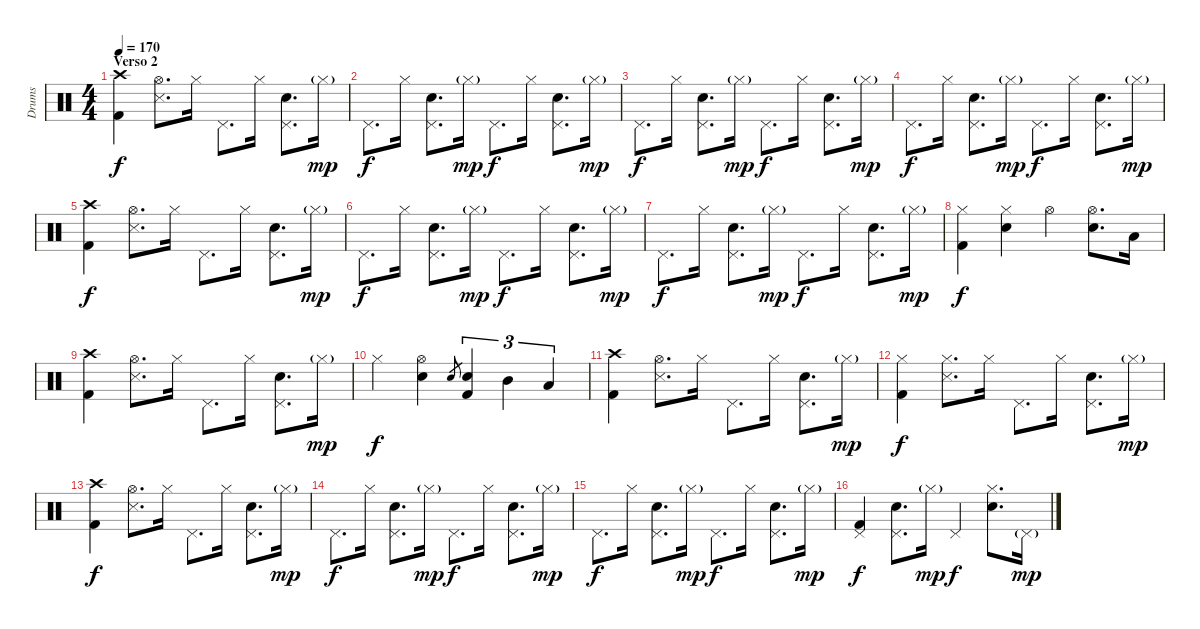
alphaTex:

\track ("Drums" "Drums") {instrument percussion}
\staff {score}
\articulation defaults
\ts (4 4)
\section ("" "Verso 2")
\tempo 170
\clef neutral
\ks c
("Crash high (hit)" "Kick (hit) 2").4{dy f} ("Hi-Hat (open)" "Snare (side stick) 3").8{d} "Hi-Hat (closed)".16 "Pedal Hi-Hat (hit)".8{d} "Hi-Hat (closed)".16 ("Pedal Hi-Hat (hit)" "Snare (hit) 2").8{d} "Hi-Hat (closed)"{g}.16{dy mp} |
"Pedal Hi-Hat (hit)".8{d dy f} "Hi-Hat (closed)".16 ("Pedal Hi-Hat (hit)" "Snare (hit) 2").8{d} "Hi-Hat (closed)"{g}.16{dy mp} "Pedal Hi-Hat (hit)".8{d dy f} "Hi-Hat (closed)".16 ("Pedal Hi-Hat (hit)" "Snare (hit) 2").8{d} "Hi-Hat (closed)"{g}.16{dy mp} |
"Pedal Hi-Hat (hit)".8{d dy f} "Hi-Hat (closed)".16 ("Pedal Hi-Hat (hit)" "Snare (hit) 2").8{d} "Hi-Hat (closed)"{g}.16{dy mp} "Pedal Hi-Hat (hit)".8{d dy f} "Hi-Hat (closed)".16 ("Pedal Hi-Hat (hit)" "Snare (hit) 2").8{d} "Hi-Hat (closed)"{g}.16{dy mp} |
"Pedal Hi-Hat (hit)".8{d dy f} "Hi-Hat (closed)".16 ("Pedal Hi-Hat (hit)" "Snare (hit) 2").8{d} "Hi-Hat (closed)"{g}.16{dy mp} "Pedal Hi-Hat (hit)".8{d dy f} "Hi-Hat (closed)".16 ("Pedal Hi-Hat (hit)" "Snare (hit) 2").8{d} "Hi-Hat (closed)"{g}.16{dy mp} |
("Crash high (hit)" "Kick (hit) 2").4{dy f} ("Hi-Hat (open)" "Snare (side stick) 3").8{d} "Hi-Hat (closed)".16 "Pedal Hi-Hat (hit)".8{d} "Hi-Hat (closed)".16 ("Pedal Hi-Hat (hit)" "Snare (hit) 2").8{d} "Hi-Hat (closed)"{g}.16{dy mp} |
"Pedal Hi-Hat (hit)".8{d dy f} "Hi-Hat (closed)".16 ("Pedal Hi-Hat (hit)" "Snare (hit) 2").8{d} "Hi-Hat (closed)"{g}.16{dy mp} "Pedal Hi-Hat (hit)".8{d dy f} "Hi-Hat (closed)".16 ("Pedal Hi-Hat (hit)" "Snare (hit) 2").8{d} "Hi-Hat (closed)"{g}.16{dy mp} |
"Pedal Hi-Hat (hit)".8{d dy f} "Hi-Hat (closed)".16 ("Pedal Hi-Hat (hit)" "Snare (hit) 2").8{d} "Hi-Hat (closed)"{g}.16{dy mp} "Pedal Hi-Hat (hit)".8{d dy f} "Hi-Hat (closed)".16 ("Pedal Hi-Hat (hit)" "Snare (hit) 2").8{d} "Hi-Hat (closed)"{g}.16{dy mp} |
("Hi-Hat (closed)" "Kick (hit) 2").4{dy f} ("Hi-Hat (closed)" "Snare (hit) 2").4 "Hi-Hat (open)".4 ("Hi-Hat (open)" "Snare (hit) 2").8{d} "Low Tom (hit)".16 |
("Crash high (hit)" "Kick (hit) 2").4 ("Hi-Hat (open)" "Snare (side stick) 3").8{d} "Hi-Hat (closed)".16 "Pedal Hi-Hat (hit)".8{d} "Hi-Hat (closed)".16 ("Pedal Hi-Hat (hit)" "Snare (hit) 2").8{d} "Hi-Hat (closed)"{g}.16{dy mp} |
"Hi-Hat (closed)".4{dy f} ("Hi-Hat (open)" "Snare (hit) 2").4 "Snare (hit) 2".8{gr} ("Snare (hit) 2" "Kick (hit) 2").4{tu (3 2)} "Mid Tom (hit)".4{tu (3 2)} "Low Tom (hit)".4{tu (3 2)} |
("Crash high (hit)" "Kick (hit) 2").4 ("Hi-Hat (open)" "Snare (side stick) 3").8{d} "Hi-Hat (closed)".16 "Pedal Hi-Hat (hit)".8{d} "Hi-Hat (closed)".16 ("Pedal Hi-Hat (hit)" "Snare (hit) 2").8{d} "Hi-Hat (closed)"{g}.16{dy mp} |
("Hi-Hat (closed)" "Kick (hit) 2").4{dy f} ("Hi-Hat (closed)" "Snare (side stick) 3").8{d} "Hi-Hat (closed)".16 "Pedal Hi-Hat (hit)".8{d} "Hi-Hat (closed)".16 ("Pedal Hi-Hat (hit)" "Snare (hit) 2").8{d} "Hi-Hat (closed)"{g}.16{dy mp} |
("Crash high (hit)" "Kick (hit) 2").4{dy f} ("Hi-Hat (open)" "Snare (side stick) 3").8{d} "Hi-Hat (closed)".16 "Pedal Hi-Hat (hit)".8{d} "Hi-Hat (closed)".16 ("Pedal Hi-Hat (hit)" "Snare (hit) 2").8{d} "Hi-Hat (closed)"{g}.16{dy mp} |
"Pedal Hi-Hat (hit)".8{d dy f} "Hi-Hat (closed)".16 ("Pedal Hi-Hat (hit)" "Snare (hit) 2").8{d} "Hi-Hat (closed)"{g}.16{dy mp} "Pedal Hi-Hat (hit)".8{d dy f} "Hi-Hat (closed)".16 ("Pedal Hi-Hat (hit)" "Snare (hit) 2").8{d} "Hi-Hat (closed)"{g}.16{dy mp} |
"Pedal Hi-Hat (hit)".8{d dy f} "Hi-Hat (closed)".16 ("Pedal Hi-Hat (hit)" "Snare (hit) 2").8{d} "Hi-Hat (closed)"{g}.16{dy mp} "Pedal Hi-Hat (hit)".8{d dy f} "Hi-Hat (closed)".16 ("Pedal Hi-Hat (hit)" "Snare (hit) 2").8{d} "Hi-Hat (closed)"{g}.16{dy mp} |
("Pedal Hi-Hat (hit)" "Kick (hit) 2").4{dy f} ("Pedal Hi-Hat (hit)" "Snare (hit) 2").8{d} "Hi-Hat (closed)"{g}.16{dy mp} "Pedal Hi-Hat (hit)".4{dy f} ("Hi-Hat (closed)" "Snare (hit) 2").8{d} "Pedal Hi-Hat (hit)"{g}.16{dy mp}
